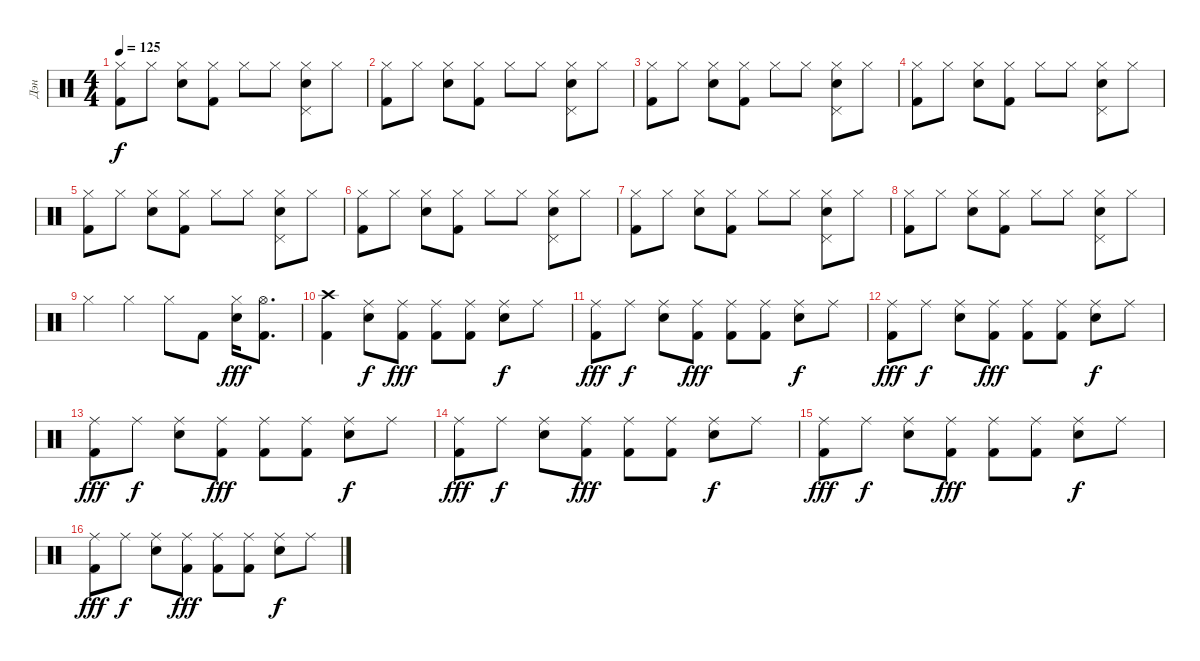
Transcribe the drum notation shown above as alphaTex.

\track ("Дэн" "Дэн") {instrument percussion}
\staff {score}
\articulation defaults
\ts (4 4)
\tempo 125
\clef neutral
\ks c
("Hi-Hat (closed)" "Kick (hit) 2").8{dy f} "Hi-Hat (closed)".8 ("Hi-Hat (closed)" "Electric Snare (hit)").8 ("Hi-Hat (closed)" "Kick (hit) 2").8 "Hi-Hat (closed)".8 "Hi-Hat (closed)".8 ("Hi-Hat (closed)" "Electric Snare (hit)" "Pedal Hi-Hat (hit)").8 "Hi-Hat (closed)".8 |
("Hi-Hat (closed)" "Kick (hit) 2").8 "Hi-Hat (closed)".8 ("Hi-Hat (closed)" "Electric Snare (hit)").8 ("Hi-Hat (closed)" "Kick (hit) 2").8 "Hi-Hat (closed)".8 "Hi-Hat (closed)".8 ("Hi-Hat (closed)" "Electric Snare (hit)" "Pedal Hi-Hat (hit)").8 "Hi-Hat (closed)".8 |
("Hi-Hat (closed)" "Kick (hit) 2").8 "Hi-Hat (closed)".8 ("Hi-Hat (closed)" "Electric Snare (hit)").8 ("Hi-Hat (closed)" "Kick (hit) 2").8 "Hi-Hat (closed)".8 "Hi-Hat (closed)".8 ("Hi-Hat (closed)" "Electric Snare (hit)" "Pedal Hi-Hat (hit)").8 "Hi-Hat (closed)".8 |
("Hi-Hat (closed)" "Kick (hit) 2").8 "Hi-Hat (closed)".8 ("Hi-Hat (closed)" "Electric Snare (hit)").8 ("Hi-Hat (closed)" "Kick (hit) 2").8 "Hi-Hat (closed)".8 "Hi-Hat (closed)".8 ("Hi-Hat (closed)" "Electric Snare (hit)" "Pedal Hi-Hat (hit)").8 "Hi-Hat (closed)".8 |
("Hi-Hat (closed)" "Kick (hit) 2").8 "Hi-Hat (closed)".8 ("Hi-Hat (closed)" "Electric Snare (hit)").8 ("Hi-Hat (closed)" "Kick (hit) 2").8 "Hi-Hat (closed)".8 "Hi-Hat (closed)".8 ("Hi-Hat (closed)" "Electric Snare (hit)" "Pedal Hi-Hat (hit)").8 "Hi-Hat (closed)".8 |
("Hi-Hat (closed)" "Kick (hit) 2").8 "Hi-Hat (closed)".8 ("Hi-Hat (closed)" "Electric Snare (hit)").8 ("Hi-Hat (closed)" "Kick (hit) 2").8 "Hi-Hat (closed)".8 "Hi-Hat (closed)".8 ("Hi-Hat (closed)" "Electric Snare (hit)" "Pedal Hi-Hat (hit)").8 "Hi-Hat (closed)".8 |
("Hi-Hat (closed)" "Kick (hit) 2").8 "Hi-Hat (closed)".8 ("Hi-Hat (closed)" "Electric Snare (hit)").8 ("Hi-Hat (closed)" "Kick (hit) 2").8 "Hi-Hat (closed)".8 "Hi-Hat (closed)".8 ("Hi-Hat (closed)" "Electric Snare (hit)" "Pedal Hi-Hat (hit)").8 "Hi-Hat (closed)".8 |
("Hi-Hat (closed)" "Kick (hit) 2").8 "Hi-Hat (closed)".8 ("Hi-Hat (closed)" "Electric Snare (hit)").8 ("Hi-Hat (closed)" "Kick (hit) 2").8 "Hi-Hat (closed)".8 "Hi-Hat (closed)".8 ("Hi-Hat (closed)" "Electric Snare (hit)" "Pedal Hi-Hat (hit)").8 "Hi-Hat (closed)".8 |
"Hi-Hat (closed)".4 "Hi-Hat (closed)".4 "Hi-Hat (closed)".8 "Kick (hit) 2".8 ("Hi-Hat (closed)" "Electric Snare (hit)").16{dy fff} ("Hi-Hat (open)" "Kick (hit) 2").8{d} |
("Crash high (hit)" "Kick (hit) 2").4 ("Ride (middle)" "Electric Snare (hit)").8{dy f} ("Ride (middle)" "Kick (hit) 2").8{dy fff} ("Ride (middle)" "Kick (hit) 2").8 ("Ride (middle)" "Kick (hit) 2").8 ("Ride (middle)" "Electric Snare (hit)").8{dy f} "Ride (middle)".8 |
("Ride (middle)" "Kick (hit) 2").8{dy fff} "Ride (middle)".8{dy f} ("Ride (middle)" "Electric Snare (hit)").8 ("Ride (middle)" "Kick (hit) 2").8{dy fff} ("Ride (middle)" "Kick (hit) 2").8 ("Ride (middle)" "Kick (hit) 2").8 ("Ride (middle)" "Electric Snare (hit)").8{dy f} "Ride (middle)".8 |
("Ride (middle)" "Kick (hit) 2").8{dy fff} "Ride (middle)".8{dy f} ("Ride (middle)" "Electric Snare (hit)").8 ("Ride (middle)" "Kick (hit) 2").8{dy fff} ("Ride (middle)" "Kick (hit) 2").8 ("Ride (middle)" "Kick (hit) 2").8 ("Ride (middle)" "Electric Snare (hit)").8{dy f} "Ride (middle)".8 |
("Ride (middle)" "Kick (hit) 2").8{dy fff} "Ride (middle)".8{dy f} ("Ride (middle)" "Electric Snare (hit)").8 ("Ride (middle)" "Kick (hit) 2").8{dy fff} ("Ride (middle)" "Kick (hit) 2").8 ("Ride (middle)" "Kick (hit) 2").8 ("Ride (middle)" "Electric Snare (hit)").8{dy f} "Ride (middle)".8 |
("Ride (middle)" "Kick (hit) 2").8{dy fff} "Ride (middle)".8{dy f} ("Ride (middle)" "Electric Snare (hit)").8 ("Ride (middle)" "Kick (hit) 2").8{dy fff} ("Ride (middle)" "Kick (hit) 2").8 ("Ride (middle)" "Kick (hit) 2").8 ("Ride (middle)" "Electric Snare (hit)").8{dy f} "Ride (middle)".8 |
("Ride (middle)" "Kick (hit) 2").8{dy fff} "Ride (middle)".8{dy f} ("Ride (middle)" "Electric Snare (hit)").8 ("Ride (middle)" "Kick (hit) 2").8{dy fff} ("Ride (middle)" "Kick (hit) 2").8 ("Ride (middle)" "Kick (hit) 2").8 ("Ride (middle)" "Electric Snare (hit)").8{dy f} "Ride (middle)".8 |
("Ride (middle)" "Kick (hit) 2").8{dy fff} "Ride (middle)".8{dy f} ("Ride (middle)" "Electric Snare (hit)").8 ("Ride (middle)" "Kick (hit) 2").8{dy fff} ("Ride (middle)" "Kick (hit) 2").8 ("Ride (middle)" "Kick (hit) 2").8 ("Ride (middle)" "Electric Snare (hit)").8{dy f} "Ride (middle)".8
